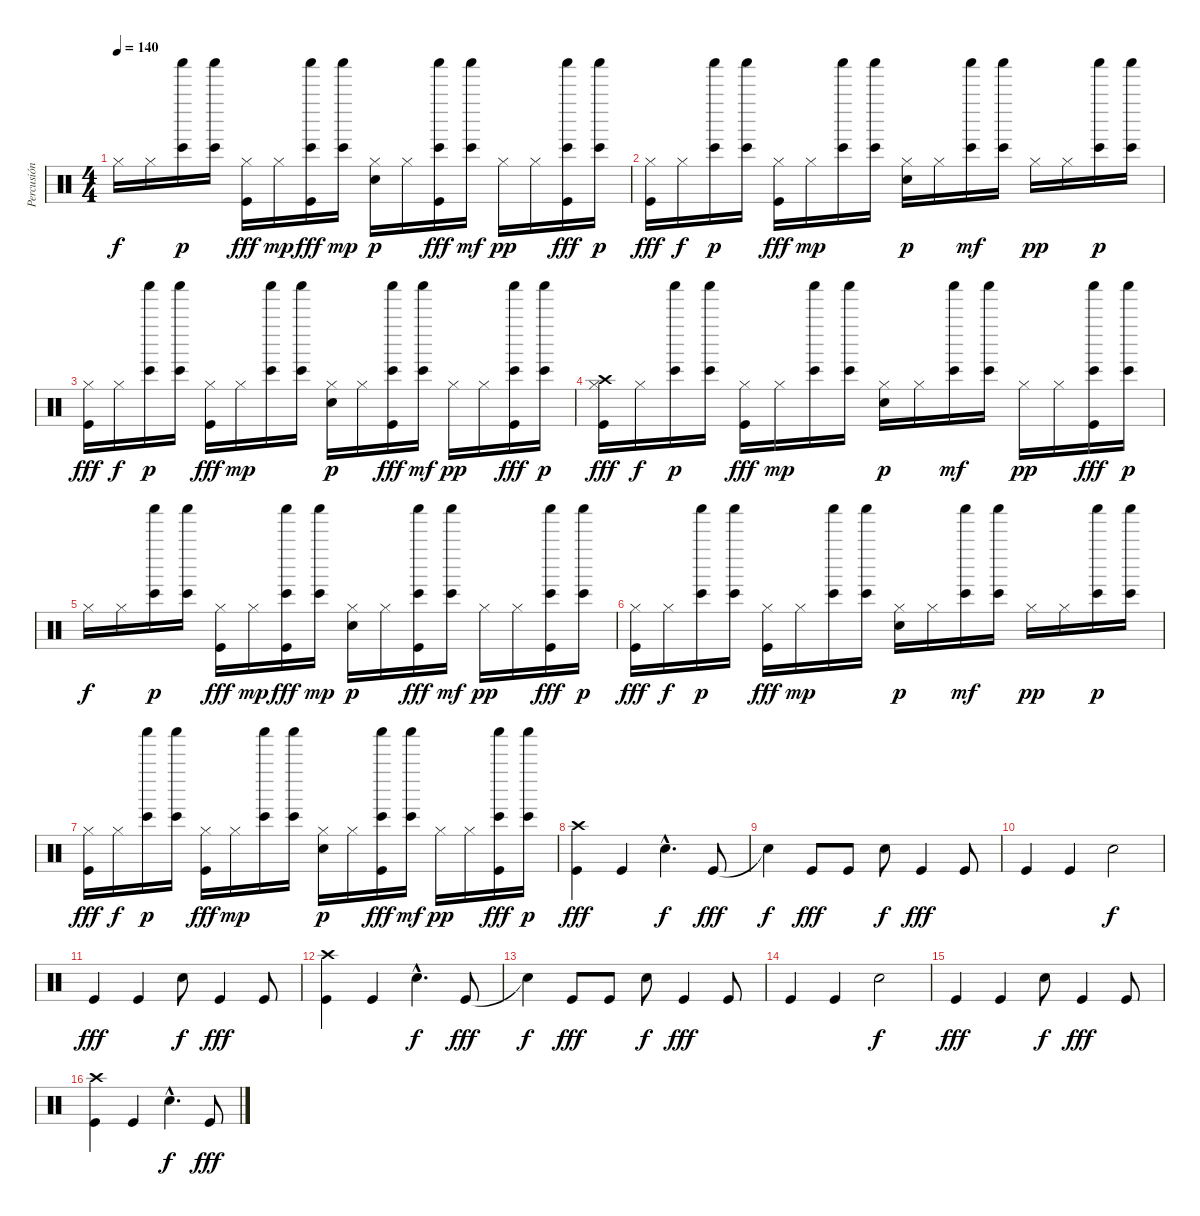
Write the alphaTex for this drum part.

\track ("Percusión" "Percusión") {instrument percussion}
\staff {score}
\articulation defaults
\ts (4 4)
\tempo 140
\clef neutral
\ks c "Hi-Hat (closed)".16{dy f balance 8} "Hi-Hat (closed)".16
("Bongo High (hit)" "Shaker (hit)").16{dy p balance 5} ("Bongo High (hit)" "Shaker (hit)").16 ("Hi-Hat (closed)" "Kick (hit)").16{dy fff balance 8} "Hi-Hat (closed)".16{dy mp} ("Bongo High (hit)" "Shaker (hit)" "Kick (hit)").16{dy fff balance 6} ("Bongo High (hit)" "Shaker (hit)").16{dy mp} ("Hi-Hat (closed)" "Electric Snare (hit)").16{dy p balance 8} "Hi-Hat (closed)".16 ("Bongo High (hit)" "Shaker (hit)" "Kick (hit)").16{dy fff balance 10} ("Bongo High (hit)" "Shaker (hit)").16{dy mf} "Hi-Hat (closed)".16{dy pp balance 8} "Hi-Hat (closed)".16 ("Bongo High (hit)" "Shaker (hit)" "Kick (hit)").16{dy fff balance 11} ("Bongo High (hit)" "Shaker (hit)").16{dy p} |
("Hi-Hat (closed)" "Kick (hit)").16{dy fff balance 8} "Hi-Hat (closed)".16{dy f} ("Bongo High (hit)" "Shaker (hit)").16{dy p balance 5} ("Bongo High (hit)" "Shaker (hit)").16 ("Hi-Hat (closed)" "Kick (hit)").16{dy fff balance 8} "Hi-Hat (closed)".16{dy mp} ("Bongo High (hit)" "Shaker (hit)").16{balance 6} ("Bongo High (hit)" "Shaker (hit)").16 ("Hi-Hat (closed)" "Electric Snare (hit)").16{dy p balance 8} "Hi-Hat (closed)".16 ("Bongo High (hit)" "Shaker (hit)").16{dy mf balance 10} ("Bongo High (hit)" "Shaker (hit)").16 "Hi-Hat (closed)".16{dy pp balance 8} "Hi-Hat (closed)".16 ("Bongo High (hit)" "Shaker (hit)").16{dy p balance 11} ("Bongo High (hit)" "Shaker (hit)").16 |
("Hi-Hat (closed)" "Kick (hit)").16{dy fff balance 8} "Hi-Hat (closed)".16{dy f} ("Bongo High (hit)" "Shaker (hit)").16{dy p balance 5} ("Bongo High (hit)" "Shaker (hit)").16 ("Hi-Hat (closed)" "Kick (hit)").16{dy fff balance 8} "Hi-Hat (closed)".16{dy mp} ("Bongo High (hit)" "Shaker (hit)").16{balance 6} ("Bongo High (hit)" "Shaker (hit)").16 ("Hi-Hat (closed)" "Electric Snare (hit)").16{dy p balance 8} "Hi-Hat (closed)".16 ("Bongo High (hit)" "Shaker (hit)" "Kick (hit)").16{dy fff balance 10} ("Bongo High (hit)" "Shaker (hit)").16{dy mf} "Hi-Hat (closed)".16{dy pp balance 8} "Hi-Hat (closed)".16 ("Bongo High (hit)" "Shaker (hit)" "Kick (hit)").16{dy fff balance 11} ("Bongo High (hit)" "Shaker (hit)").16{dy p} |
("Hi-Hat (closed)" "Crash high (hit)" "Kick (hit)").16{dy fff balance 8} "Hi-Hat (closed)".16{dy f} ("Bongo High (hit)" "Shaker (hit)").16{dy p balance 5} ("Bongo High (hit)" "Shaker (hit)").16 ("Hi-Hat (closed)" "Kick (hit)").16{dy fff balance 8} "Hi-Hat (closed)".16{dy mp} ("Bongo High (hit)" "Shaker (hit)").16{balance 6} ("Bongo High (hit)" "Shaker (hit)").16 ("Hi-Hat (closed)" "Electric Snare (hit)").16{dy p balance 8} "Hi-Hat (closed)".16 ("Bongo High (hit)" "Shaker (hit)").16{dy mf balance 10} ("Bongo High (hit)" "Shaker (hit)").16 "Hi-Hat (closed)".16{dy pp balance 8} "Hi-Hat (closed)".16 ("Bongo High (hit)" "Shaker (hit)" "Kick (hit)").16{dy fff balance 11} ("Bongo High (hit)" "Shaker (hit)").16{dy p} |
"Hi-Hat (closed)".16{dy f balance 8} "Hi-Hat (closed)".16 ("Bongo High (hit)" "Shaker (hit)").16{dy p balance 5} ("Bongo High (hit)" "Shaker (hit)").16 ("Hi-Hat (closed)" "Kick (hit)").16{dy fff balance 8} "Hi-Hat (closed)".16{dy mp} ("Bongo High (hit)" "Shaker (hit)" "Kick (hit)").16{dy fff balance 6} ("Bongo High (hit)" "Shaker (hit)").16{dy mp} ("Hi-Hat (closed)" "Electric Snare (hit)").16{dy p balance 8} "Hi-Hat (closed)".16 ("Bongo High (hit)" "Shaker (hit)" "Kick (hit)").16{dy fff balance 10} ("Bongo High (hit)" "Shaker (hit)").16{dy mf} "Hi-Hat (closed)".16{dy pp balance 8} "Hi-Hat (closed)".16 ("Bongo High (hit)" "Shaker (hit)" "Kick (hit)").16{dy fff balance 11} ("Bongo High (hit)" "Shaker (hit)").16{dy p} |
("Hi-Hat (closed)" "Kick (hit)").16{dy fff balance 8} "Hi-Hat (closed)".16{dy f} ("Bongo High (hit)" "Shaker (hit)").16{dy p balance 5} ("Bongo High (hit)" "Shaker (hit)").16 ("Hi-Hat (closed)" "Kick (hit)").16{dy fff balance 8} "Hi-Hat (closed)".16{dy mp} ("Bongo High (hit)" "Shaker (hit)").16{balance 6} ("Bongo High (hit)" "Shaker (hit)").16 ("Hi-Hat (closed)" "Electric Snare (hit)").16{dy p balance 8} "Hi-Hat (closed)".16 ("Bongo High (hit)" "Shaker (hit)").16{dy mf balance 10} ("Bongo High (hit)" "Shaker (hit)").16 "Hi-Hat (closed)".16{dy pp balance 8} "Hi-Hat (closed)".16 ("Bongo High (hit)" "Shaker (hit)").16{dy p balance 11} ("Bongo High (hit)" "Shaker (hit)").16 |
("Hi-Hat (closed)" "Kick (hit)").16{dy fff balance 8} "Hi-Hat (closed)".16{dy f} ("Bongo High (hit)" "Shaker (hit)").16{dy p balance 5} ("Bongo High (hit)" "Shaker (hit)").16 ("Hi-Hat (closed)" "Kick (hit)").16{dy fff balance 8} "Hi-Hat (closed)".16{dy mp} ("Bongo High (hit)" "Shaker (hit)").16{balance 6} ("Bongo High (hit)" "Shaker (hit)").16 ("Hi-Hat (closed)" "Electric Snare (hit)").16{dy p balance 8} "Hi-Hat (closed)".16 ("Bongo High (hit)" "Shaker (hit)" "Kick (hit)").16{dy fff balance 10} ("Bongo High (hit)" "Shaker (hit)").16{dy mf} "Hi-Hat (closed)".16{dy pp balance 8} "Hi-Hat (closed)".16 ("Bongo High (hit)" "Shaker (hit)" "Kick (hit)").16{dy fff balance 11} ("Bongo High (hit)" "Shaker (hit)").16{dy p} |
("Crash high (hit)" "Kick (hit)").4{dy fff} "Kick (hit)".4 "Electric Snare (hit)"{hac}.4{d dy f} "Kick (hit)".8{dy fff} |
"Snare (hit)"{t}.4{dy f} "Kick (hit)".8{dy fff} "Kick (hit)".8 "Electric Snare (hit)".8{dy f} "Kick (hit)".4{dy fff} "Kick (hit)".8 |
"Kick (hit)".4 "Kick (hit)".4 "Electric Snare (hit)".2{dy f} |
"Kick (hit)".4{dy fff} "Kick (hit)".4 "Electric Snare (hit)".8{dy f} "Kick (hit)".4{dy fff} "Kick (hit)".8 |
("Crash high (hit)" "Kick (hit)").4 "Kick (hit)".4 "Electric Snare (hit)"{hac}.4{d dy f} "Kick (hit)".8{dy fff} |
"Snare (hit)"{t}.4{dy f} "Kick (hit)".8{dy fff} "Kick (hit)".8 "Electric Snare (hit)".8{dy f} "Kick (hit)".4{dy fff} "Kick (hit)".8 |
"Kick (hit)".4 "Kick (hit)".4 "Electric Snare (hit)".2{dy f} |
"Kick (hit)".4{dy fff} "Kick (hit)".4 "Electric Snare (hit)".8{dy f} "Kick (hit)".4{dy fff} "Kick (hit)".8 |
("Crash high (hit)" "Kick (hit)").4 "Kick (hit)".4 "Electric Snare (hit)"{hac}.4{d dy f} "Kick (hit)".8{dy fff}
